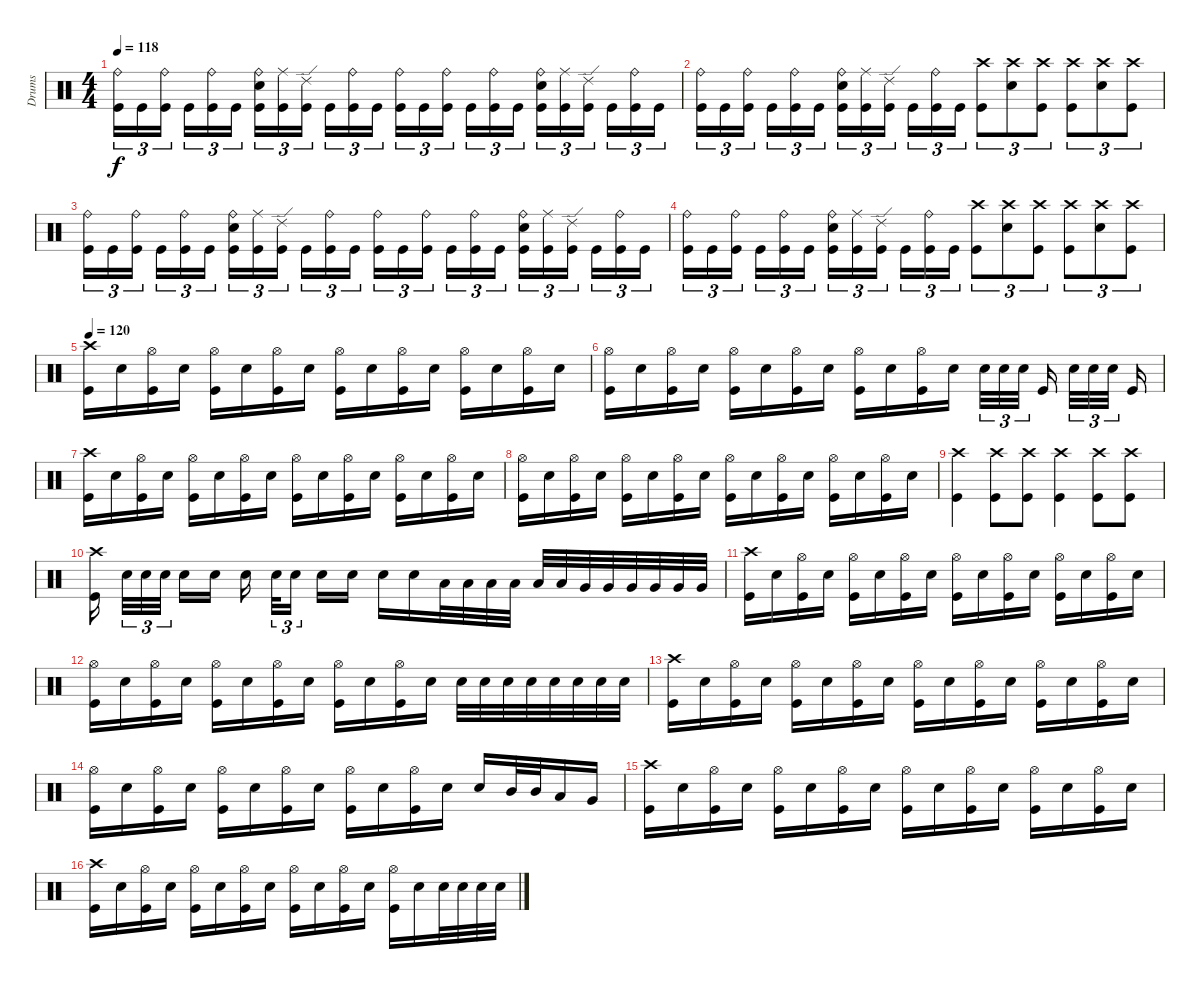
\track ("Drums" "Drums") {instrument percussion}
\staff {score}
\articulation defaults
\ts (4 4)
\tempo 118
\clef neutral
\ks c
("Ride (bell)" "Kick (hit)").16{tu (3 2) dy f} "Kick (hit)".16{tu (3 2)} ("Ride (bell)" "Kick (hit)").16{tu (3 2)} "Kick (hit)".16{tu (3 2)} ("Ride (bell)" "Kick (hit)").16{tu (3 2)} "Kick (hit)".16{tu (3 2)} ("Ride (bell)" "Electric Snare (hit)" "Kick (hit)").16{tu (3 2)} ("Ride (middle)" "Kick (hit)").16{tu (3 2)} ("Ride (edge) 2" "Kick (hit)").16{tu (3 2)} "Kick (hit)".16{tu (3 2)} ("Ride (bell)" "Kick (hit)").16{tu (3 2)} "Kick (hit)".16{tu (3 2)} ("Ride (bell)" "Kick (hit)").16{tu (3 2)} "Kick (hit)".16{tu (3 2)} ("Ride (bell)" "Kick (hit)").16{tu (3 2)} "Kick (hit)".16{tu (3 2)} ("Ride (bell)" "Kick (hit)").16{tu (3 2)} "Kick (hit)".16{tu (3 2)} ("Ride (bell)" "Electric Snare (hit)" "Kick (hit)").16{tu (3 2)} ("Ride (middle)" "Kick (hit)").16{tu (3 2)} ("Ride (edge) 2" "Kick (hit)").16{tu (3 2)} "Kick (hit)".16{tu (3 2)} ("Ride (bell)" "Kick (hit)").16{tu (3 2)} "Kick (hit)".16{tu (3 2)} |
("Ride (bell)" "Kick (hit)").16{tu (3 2)} "Kick (hit)".16{tu (3 2)} ("Ride (bell)" "Kick (hit)").16{tu (3 2)} "Kick (hit)".16{tu (3 2)} ("Ride (bell)" "Kick (hit)").16{tu (3 2)} "Kick (hit)".16{tu (3 2)} ("Ride (bell)" "Electric Snare (hit)" "Kick (hit)").16{tu (3 2)} ("Ride (middle)" "Kick (hit)").16{tu (3 2)} ("Ride (edge) 2" "Kick (hit)").16{tu (3 2)} "Kick (hit)".16{tu (3 2)} ("Ride (bell)" "Kick (hit)").16{tu (3 2)} "Kick (hit)".16{tu (3 2)} ("Crash high (hit)" "Kick (hit)").8{tu (3 2)} ("Crash high (hit)" "Electric Snare (hit)").8{tu (3 2)} ("Crash high (hit)" "Kick (hit)").8{tu (3 2)} ("Crash high (hit)" "Kick (hit)").8{tu (3 2)} ("Crash high (hit)" "Electric Snare (hit)").8{tu (3 2)} ("Crash high (hit)" "Kick (hit)").8{tu (3 2)} |
("Ride (bell)" "Kick (hit)").16{tu (3 2)} "Kick (hit)".16{tu (3 2)} ("Ride (bell)" "Kick (hit)").16{tu (3 2)} "Kick (hit)".16{tu (3 2)} ("Ride (bell)" "Kick (hit)").16{tu (3 2)} "Kick (hit)".16{tu (3 2)} ("Ride (bell)" "Electric Snare (hit)" "Kick (hit)").16{tu (3 2)} ("Ride (middle)" "Kick (hit)").16{tu (3 2)} ("Ride (edge) 2" "Kick (hit)").16{tu (3 2)} "Kick (hit)".16{tu (3 2)} ("Ride (bell)" "Kick (hit)").16{tu (3 2)} "Kick (hit)".16{tu (3 2)} ("Ride (bell)" "Kick (hit)").16{tu (3 2)} "Kick (hit)".16{tu (3 2)} ("Ride (bell)" "Kick (hit)").16{tu (3 2)} "Kick (hit)".16{tu (3 2)} ("Ride (bell)" "Kick (hit)").16{tu (3 2)} "Kick (hit)".16{tu (3 2)} ("Ride (bell)" "Electric Snare (hit)" "Kick (hit)").16{tu (3 2)} ("Ride (middle)" "Kick (hit)").16{tu (3 2)} ("Ride (edge) 2" "Kick (hit)").16{tu (3 2)} "Kick (hit)".16{tu (3 2)} ("Ride (bell)" "Kick (hit)").16{tu (3 2)} "Kick (hit)".16{tu (3 2)} |
("Ride (bell)" "Kick (hit)").16{tu (3 2)} "Kick (hit)".16{tu (3 2)} ("Ride (bell)" "Kick (hit)").16{tu (3 2)} "Kick (hit)".16{tu (3 2)} ("Ride (bell)" "Kick (hit)").16{tu (3 2)} "Kick (hit)".16{tu (3 2)} ("Ride (bell)" "Electric Snare (hit)" "Kick (hit)").16{tu (3 2)} ("Ride (middle)" "Kick (hit)").16{tu (3 2)} ("Ride (edge) 2" "Kick (hit)").16{tu (3 2)} "Kick (hit)".16{tu (3 2)} ("Ride (bell)" "Kick (hit)").16{tu (3 2)} "Kick (hit)".16{tu (3 2)} ("Crash high (hit)" "Kick (hit)").8{tu (3 2)} ("Crash high (hit)" "Electric Snare (hit)").8{tu (3 2)} ("Crash high (hit)" "Kick (hit)").8{tu (3 2)} ("Crash high (hit)" "Kick (hit)").8{tu (3 2)} ("Crash high (hit)" "Electric Snare (hit)").8{tu (3 2)} ("Crash high (hit)" "Kick (hit)").8{tu (3 2)} |
\tempo 120
("Crash high (hit)" "Kick (hit)").16 "Electric Snare (hit)".16 ("Hi-Hat (open)" "Kick (hit)").16 "Electric Snare (hit)".16 ("Hi-Hat (open)" "Kick (hit)").16 "Electric Snare (hit)".16 ("Hi-Hat (open)" "Kick (hit)").16 "Electric Snare (hit)".16 ("Hi-Hat (open)" "Kick (hit)").16 "Electric Snare (hit)".16 ("Hi-Hat (open)" "Kick (hit)").16 "Electric Snare (hit)".16 ("Hi-Hat (open)" "Kick (hit)").16 "Electric Snare (hit)".16 ("Hi-Hat (open)" "Kick (hit)").16 "Electric Snare (hit)".16 |
("Hi-Hat (open)" "Kick (hit)").16 "Electric Snare (hit)".16 ("Hi-Hat (open)" "Kick (hit)").16 "Electric Snare (hit)".16 ("Hi-Hat (open)" "Kick (hit)").16 "Electric Snare (hit)".16 ("Hi-Hat (open)" "Kick (hit)").16 "Electric Snare (hit)".16 ("Hi-Hat (open)" "Kick (hit)").16 "Electric Snare (hit)".16 ("Hi-Hat (open)" "Kick (hit)").16 "Electric Snare (hit)".16 "Electric Snare (hit)".32{tu (3 2)} "Electric Snare (hit)".32{tu (3 2)} "Electric Snare (hit)".32{tu (3 2)} "Kick (hit)".16 "Electric Snare (hit)".32{tu (3 2)} "Electric Snare (hit)".32{tu (3 2)} "Electric Snare (hit)".32{tu (3 2)} "Kick (hit)".16 |
("Crash high (hit)" "Kick (hit)").16 "Electric Snare (hit)".16 ("Hi-Hat (open)" "Kick (hit)").16 "Electric Snare (hit)".16 ("Hi-Hat (open)" "Kick (hit)").16 "Electric Snare (hit)".16 ("Hi-Hat (open)" "Kick (hit)").16 "Electric Snare (hit)".16 ("Hi-Hat (open)" "Kick (hit)").16 "Electric Snare (hit)".16 ("Hi-Hat (open)" "Kick (hit)").16 "Electric Snare (hit)".16 ("Hi-Hat (open)" "Kick (hit)").16 "Electric Snare (hit)".16 ("Hi-Hat (open)" "Kick (hit)").16 "Electric Snare (hit)".16 |
("Hi-Hat (open)" "Kick (hit)").16 "Electric Snare (hit)".16 ("Hi-Hat (open)" "Kick (hit)").16 "Electric Snare (hit)".16 ("Hi-Hat (open)" "Kick (hit)").16 "Electric Snare (hit)".16 ("Hi-Hat (open)" "Kick (hit)").16 "Electric Snare (hit)".16 ("Hi-Hat (open)" "Kick (hit)").16 "Electric Snare (hit)".16 ("Hi-Hat (open)" "Kick (hit)").16 "Electric Snare (hit)".16 ("Hi-Hat (open)" "Kick (hit)").16 "Electric Snare (hit)".16 ("Hi-Hat (open)" "Kick (hit)").16 "Electric Snare (hit)".16 |
("Crash high (hit)" "Kick (hit)").4 ("Crash high (hit)" "Kick (hit)").8 ("Crash high (hit)" "Kick (hit)").8 ("Crash high (hit)" "Kick (hit)").4 ("Crash high (hit)" "Kick (hit)").8 ("Crash high (hit)" "Kick (hit)").8 |
("Crash high (hit)" "Kick (hit)").16 "Electric Snare (hit)".32{tu (3 2)} "Electric Snare (hit)".32{tu (3 2)} "Electric Snare (hit)".32{tu (3 2)} "Electric Snare (hit)".16 "Electric Snare (hit)".16 "Electric Snare (hit)".16 "Electric Snare (hit)".32{tu (3 2)} "Electric Snare (hit)".16{tu (3 2)} "Electric Snare (hit)".16 "Electric Snare (hit)".16 "Electric Snare (hit)".16 "Electric Snare (hit)".16 "Low Tom (hit)".32 "Low Tom (hit)".32 "Low Tom (hit)".32 "Low Tom (hit)".32 "Low Tom (hit)".32 "Low Tom (hit)".32 "Very Low Tom (hit)".32 "Very Low Tom (hit)".32 "Very Low Tom (hit)".32 "Very Low Tom (hit)".32 "Very Low Tom (hit)".32 "Very Low Tom (hit)".32 |
("Crash high (hit)" "Kick (hit)").16 "Electric Snare (hit)".16 ("Hi-Hat (open)" "Kick (hit)").16 "Electric Snare (hit)".16 ("Hi-Hat (open)" "Kick (hit)").16 "Electric Snare (hit)".16 ("Hi-Hat (open)" "Kick (hit)").16 "Electric Snare (hit)".16 ("Hi-Hat (open)" "Kick (hit)").16 "Electric Snare (hit)".16 ("Hi-Hat (open)" "Kick (hit)").16 "Electric Snare (hit)".16 ("Hi-Hat (open)" "Kick (hit)").16 "Electric Snare (hit)".16 ("Hi-Hat (open)" "Kick (hit)").16 "Electric Snare (hit)".16 |
("Hi-Hat (open)" "Kick (hit)").16 "Electric Snare (hit)".16 ("Hi-Hat (open)" "Kick (hit)").16 "Electric Snare (hit)".16 ("Hi-Hat (open)" "Kick (hit)").16 "Electric Snare (hit)".16 ("Hi-Hat (open)" "Kick (hit)").16 "Electric Snare (hit)".16 ("Hi-Hat (open)" "Kick (hit)").16 "Electric Snare (hit)".16 ("Hi-Hat (open)" "Kick (hit)").16 "Electric Snare (hit)".16 "Electric Snare (hit)".32 "Electric Snare (hit)".32 "Electric Snare (hit)".32 "Electric Snare (hit)".32 "Electric Snare (hit)".32 "Electric Snare (hit)".32 "Electric Snare (hit)".32 "Electric Snare (hit)".32 |
("Crash high (hit)" "Kick (hit)").16 "Electric Snare (hit)".16 ("Hi-Hat (open)" "Kick (hit)").16 "Electric Snare (hit)".16 ("Hi-Hat (open)" "Kick (hit)").16 "Electric Snare (hit)".16 ("Hi-Hat (open)" "Kick (hit)").16 "Electric Snare (hit)".16 ("Hi-Hat (open)" "Kick (hit)").16 "Electric Snare (hit)".16 ("Hi-Hat (open)" "Kick (hit)").16 "Electric Snare (hit)".16 ("Hi-Hat (open)" "Kick (hit)").16 "Electric Snare (hit)".16 ("Hi-Hat (open)" "Kick (hit)").16 "Electric Snare (hit)".16 |
("Hi-Hat (open)" "Kick (hit)").16 "Electric Snare (hit)".16 ("Hi-Hat (open)" "Kick (hit)").16 "Electric Snare (hit)".16 ("Hi-Hat (open)" "Kick (hit)").16 "Electric Snare (hit)".16 ("Hi-Hat (open)" "Kick (hit)").16 "Electric Snare (hit)".16 ("Hi-Hat (open)" "Kick (hit)").16 "Electric Snare (hit)".16 ("Hi-Hat (open)" "Kick (hit)").16 "Electric Snare (hit)".16 "Electric Snare (hit)".16 "Mid Tom (hit)".32 "Mid Tom (hit)".32 "Low Tom (hit)".16 "Very Low Tom (hit)".16 |
("Crash high (hit)" "Kick (hit)").16 "Electric Snare (hit)".16 ("Hi-Hat (open)" "Kick (hit)").16 "Electric Snare (hit)".16 ("Hi-Hat (open)" "Kick (hit)").16 "Electric Snare (hit)".16 ("Hi-Hat (open)" "Kick (hit)").16 "Electric Snare (hit)".16 ("Hi-Hat (open)" "Kick (hit)").16 "Electric Snare (hit)".16 ("Hi-Hat (open)" "Kick (hit)").16 "Electric Snare (hit)".16 ("Hi-Hat (open)" "Kick (hit)").16 "Electric Snare (hit)".16 ("Hi-Hat (open)" "Kick (hit)").16 "Electric Snare (hit)".16 |
("Crash high (hit)" "Kick (hit)").16 "Electric Snare (hit)".16 ("Hi-Hat (open)" "Kick (hit)").16 "Electric Snare (hit)".16 ("Hi-Hat (open)" "Kick (hit)").16 "Electric Snare (hit)".16 ("Hi-Hat (open)" "Kick (hit)").16 "Electric Snare (hit)".16 ("Hi-Hat (open)" "Kick (hit)").16 "Electric Snare (hit)".16 ("Hi-Hat (open)" "Kick (hit)").16 "Electric Snare (hit)".16 ("Hi-Hat (open)" "Kick (hit)").16 "Electric Snare (hit)".16 "Electric Snare (hit)".32 "Electric Snare (hit)".32 "Electric Snare (hit)".32 "Electric Snare (hit)".32
